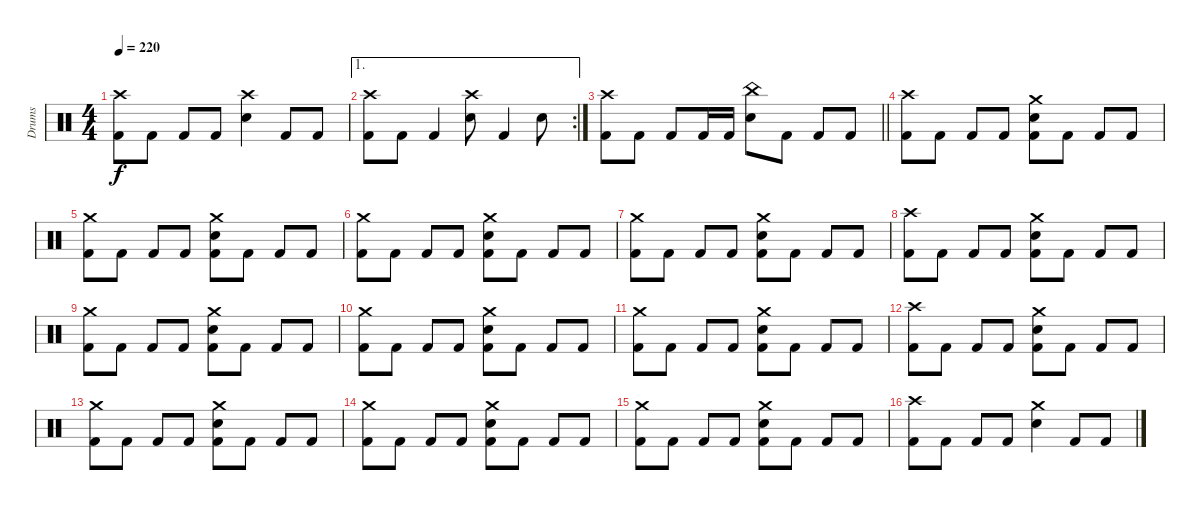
\track ("Drums" "Drums") {instrument percussion}
\staff {score}
\articulation defaults
\ts (4 4)
\tempo 220
\clef neutral
\ks c
("Crash high (hit)" "Kick (hit) 2").8{dy f} "Kick (hit) 2".8 "Kick (hit) 2".8 "Kick (hit) 2".8 ("Crash high (hit)" "Snare (hit) 2").4 "Kick (hit) 2".8 "Kick (hit) 2".8 |
\ae 1
\rc 2
("Crash high (hit)" "Kick (hit) 2").8 "Kick (hit) 2".8 "Kick (hit) 2".4 ("Crash high (hit)" "Snare (hit) 2").8 "Kick (hit) 2".4 "Snare (hit) 2".8 |
\barLineRight lightlight
("Crash high (hit)" "Kick (hit) 2").8 "Kick (hit) 2".8 "Kick (hit) 2".8 "Kick (hit) 2".16 "Kick (hit) 2".16 ("China (hit)" "Snare (hit) 2").8 "Kick (hit) 2".8 "Kick (hit) 2".8 "Kick (hit) 2".8 |
("Crash high (hit)" "Kick (hit) 2").8 "Kick (hit) 2".8 "Kick (hit) 2".8 "Kick (hit) 2".8 ("Crash medium (hit)" "Snare (hit) 2" "Kick (hit) 2").8 "Kick (hit) 2".8 "Kick (hit) 2".8 "Kick (hit) 2".8 |
("Crash medium (hit)" "Kick (hit) 2").8 "Kick (hit) 2".8 "Kick (hit) 2".8 "Kick (hit) 2".8 ("Crash medium (hit)" "Snare (hit) 2" "Kick (hit) 2").8 "Kick (hit) 2".8 "Kick (hit) 2".8 "Kick (hit) 2".8 |
("Crash medium (hit)" "Kick (hit) 2").8 "Kick (hit) 2".8 "Kick (hit) 2".8 "Kick (hit) 2".8 ("Crash medium (hit)" "Snare (hit) 2" "Kick (hit) 2").8 "Kick (hit) 2".8 "Kick (hit) 2".8 "Kick (hit) 2".8 |
("Crash medium (hit)" "Kick (hit) 2").8 "Kick (hit) 2".8 "Kick (hit) 2".8 "Kick (hit) 2".8 ("Crash medium (hit)" "Snare (hit) 2" "Kick (hit) 2").8 "Kick (hit) 2".8 "Kick (hit) 2".8 "Kick (hit) 2".8 |
("Crash high (hit)" "Kick (hit) 2").8 "Kick (hit) 2".8 "Kick (hit) 2".8 "Kick (hit) 2".8 ("Crash medium (hit)" "Snare (hit) 2" "Kick (hit) 2").8 "Kick (hit) 2".8 "Kick (hit) 2".8 "Kick (hit) 2".8 |
("Crash medium (hit)" "Kick (hit) 2").8 "Kick (hit) 2".8 "Kick (hit) 2".8 "Kick (hit) 2".8 ("Crash medium (hit)" "Snare (hit) 2" "Kick (hit) 2").8 "Kick (hit) 2".8 "Kick (hit) 2".8 "Kick (hit) 2".8 |
("Crash medium (hit)" "Kick (hit) 2").8 "Kick (hit) 2".8 "Kick (hit) 2".8 "Kick (hit) 2".8 ("Crash medium (hit)" "Snare (hit) 2" "Kick (hit) 2").8 "Kick (hit) 2".8 "Kick (hit) 2".8 "Kick (hit) 2".8 |
("Crash medium (hit)" "Kick (hit) 2").8 "Kick (hit) 2".8 "Kick (hit) 2".8 "Kick (hit) 2".8 ("Crash medium (hit)" "Snare (hit) 2" "Kick (hit) 2").8 "Kick (hit) 2".8 "Kick (hit) 2".8 "Kick (hit) 2".8 |
("Crash high (hit)" "Kick (hit) 2").8 "Kick (hit) 2".8 "Kick (hit) 2".8 "Kick (hit) 2".8 ("Crash medium (hit)" "Snare (hit) 2" "Kick (hit) 2").8 "Kick (hit) 2".8 "Kick (hit) 2".8 "Kick (hit) 2".8 |
("Crash medium (hit)" "Kick (hit) 2").8 "Kick (hit) 2".8 "Kick (hit) 2".8 "Kick (hit) 2".8 ("Crash medium (hit)" "Snare (hit) 2" "Kick (hit) 2").8 "Kick (hit) 2".8 "Kick (hit) 2".8 "Kick (hit) 2".8 |
("Crash medium (hit)" "Kick (hit) 2").8 "Kick (hit) 2".8 "Kick (hit) 2".8 "Kick (hit) 2".8 ("Crash medium (hit)" "Snare (hit) 2" "Kick (hit) 2").8 "Kick (hit) 2".8 "Kick (hit) 2".8 "Kick (hit) 2".8 |
("Crash medium (hit)" "Kick (hit) 2").8 "Kick (hit) 2".8 "Kick (hit) 2".8 "Kick (hit) 2".8 ("Crash medium (hit)" "Snare (hit) 2" "Kick (hit) 2").8 "Kick (hit) 2".8 "Kick (hit) 2".8 "Kick (hit) 2".8 |
("Crash high (hit)" "Kick (hit) 2").8 "Kick (hit) 2".8 "Kick (hit) 2".8 "Kick (hit) 2".8 ("Crash medium (hit)" "Snare (hit) 2").4 "Kick (hit) 2".8 "Kick (hit) 2".8
